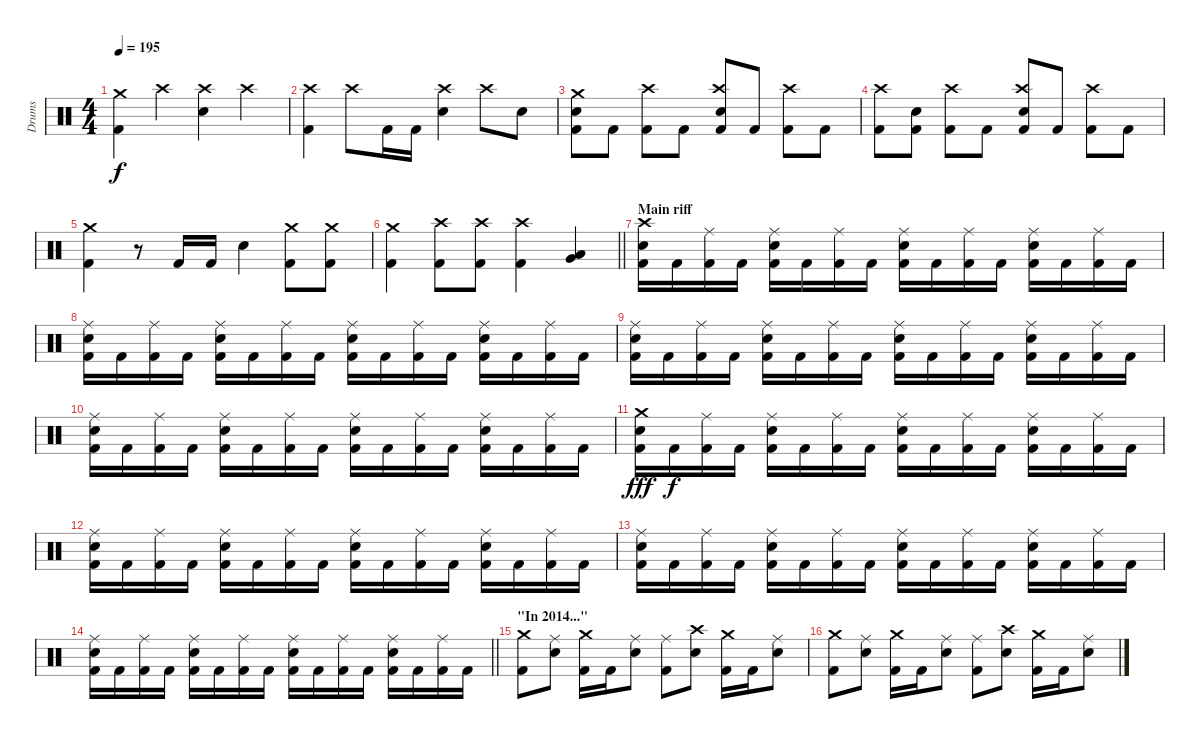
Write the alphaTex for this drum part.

\track ("Drums" "Drums") {instrument percussion}
\staff {score}
\articulation defaults
\ts (4 4)
\tempo 195
\clef neutral
\ks c
("Crash medium (hit)" "Kick (hit) 2").4{dy f} "Crash high (hit)".4 ("Crash high (hit)" "Snare (hit) 2").4 "Crash high (hit)".4 |
("Crash high (hit)" "Kick (hit) 2").4 "Crash high (hit)".8 "Kick (hit) 2".16 "Kick (hit) 2".16 ("Crash high (hit)" "Snare (hit) 2").4 "Crash high (hit)".8 "Snare (hit) 2".8 |
("Crash medium (hit)" "Snare (hit) 2" "Kick (hit) 2").8 "Kick (hit) 2".8 ("Crash high (hit)" "Kick (hit) 2").8 "Kick (hit) 2".8 ("Crash high (hit)" "Snare (hit) 2" "Kick (hit) 2").8 "Kick (hit) 2".8 ("Crash high (hit)" "Kick (hit) 2").8 "Kick (hit) 2".8 |
("Crash high (hit)" "Kick (hit) 2").8 ("Snare (hit) 2" "Kick (hit) 2").8 ("Crash high (hit)" "Kick (hit) 2").8 "Kick (hit) 2".8 ("Crash high (hit)" "Snare (hit) 2" "Kick (hit) 2").8 "Kick (hit) 2".8 ("Crash high (hit)" "Kick (hit) 2").8 "Kick (hit) 2".8 |
("Crash medium (hit)" "Kick (hit) 2").4 r.8 "Kick (hit) 2".16 "Kick (hit) 2".16 "Snare (hit) 2".4 ("Crash medium (hit)" "Kick (hit) 2").8 ("Crash medium (hit)" "Kick (hit) 2").8 |
\barLineRight lightlight
("Crash medium (hit)" "Kick (hit) 2").4 ("Crash high (hit)" "Kick (hit) 2").8 ("Crash high (hit)" "Kick (hit) 2").8 ("Crash high (hit)" "Kick (hit) 2").4 ("Very Low Tom (hit)" "Low Floor Tom (hit)").4 |
\section ("" "Main riff")
("Crash high (hit)" "Snare (hit) 2" "Kick (hit) 2").16 "Kick (hit) 2".16 ("Ride (middle)" "Kick (hit) 2").16 "Kick (hit) 2".16 ("Ride (middle)" "Snare (hit) 2" "Kick (hit) 2").16 "Kick (hit) 2".16 ("Ride (middle)" "Kick (hit) 2").16 "Kick (hit) 2".16 ("Ride (middle)" "Snare (hit) 2" "Kick (hit) 2").16 "Kick (hit) 2".16 ("Ride (middle)" "Kick (hit) 2").16 "Kick (hit) 2".16 ("Ride (middle)" "Snare (hit) 2" "Kick (hit) 2").16 "Kick (hit) 2".16 ("Ride (middle)" "Kick (hit) 2").16 "Kick (hit) 2".16 |
("Ride (middle)" "Snare (hit) 2" "Kick (hit) 2").16 "Kick (hit) 2".16 ("Ride (middle)" "Kick (hit) 2").16 "Kick (hit) 2".16 ("Ride (middle)" "Snare (hit) 2" "Kick (hit) 2").16 "Kick (hit) 2".16 ("Ride (middle)" "Kick (hit) 2").16 "Kick (hit) 2".16 ("Ride (middle)" "Snare (hit) 2" "Kick (hit) 2").16 "Kick (hit) 2".16 ("Ride (middle)" "Kick (hit) 2").16 "Kick (hit) 2".16 ("Ride (middle)" "Snare (hit) 2" "Kick (hit) 2").16 "Kick (hit) 2".16 ("Ride (middle)" "Kick (hit) 2").16 "Kick (hit) 2".16 |
("Ride (middle)" "Snare (hit) 2" "Kick (hit) 2").16 "Kick (hit) 2".16 ("Ride (middle)" "Kick (hit) 2").16 "Kick (hit) 2".16 ("Ride (middle)" "Snare (hit) 2" "Kick (hit) 2").16 "Kick (hit) 2".16 ("Ride (middle)" "Kick (hit) 2").16 "Kick (hit) 2".16 ("Ride (middle)" "Snare (hit) 2" "Kick (hit) 2").16 "Kick (hit) 2".16 ("Ride (middle)" "Kick (hit) 2").16 "Kick (hit) 2".16 ("Ride (middle)" "Snare (hit) 2" "Kick (hit) 2").16 "Kick (hit) 2".16 ("Ride (middle)" "Kick (hit) 2").16 "Kick (hit) 2".16 |
("Ride (middle)" "Snare (hit) 2" "Kick (hit) 2").16 "Kick (hit) 2".16 ("Ride (middle)" "Kick (hit) 2").16 "Kick (hit) 2".16 ("Ride (middle)" "Snare (hit) 2" "Kick (hit) 2").16 "Kick (hit) 2".16 ("Ride (middle)" "Kick (hit) 2").16 "Kick (hit) 2".16 ("Ride (middle)" "Snare (hit) 2" "Kick (hit) 2").16 "Kick (hit) 2".16 ("Ride (middle)" "Kick (hit) 2").16 "Kick (hit) 2".16 ("Ride (middle)" "Snare (hit) 2" "Kick (hit) 2").16 "Kick (hit) 2".16 ("Ride (middle)" "Kick (hit) 2").16 "Kick (hit) 2".16 |
("Crash medium (hit)" "Snare (hit) 2" "Kick (hit) 2").16{dy fff} "Kick (hit) 2".16{dy f} ("Ride (middle)" "Kick (hit) 2").16 "Kick (hit) 2".16 ("Ride (middle)" "Snare (hit) 2" "Kick (hit) 2").16 "Kick (hit) 2".16 ("Ride (middle)" "Kick (hit) 2").16 "Kick (hit) 2".16 ("Ride (middle)" "Snare (hit) 2" "Kick (hit) 2").16 "Kick (hit) 2".16 ("Ride (middle)" "Kick (hit) 2").16 "Kick (hit) 2".16 ("Ride (middle)" "Snare (hit) 2" "Kick (hit) 2").16 "Kick (hit) 2".16 ("Ride (middle)" "Kick (hit) 2").16 "Kick (hit) 2".16 |
("Ride (middle)" "Snare (hit) 2" "Kick (hit) 2").16 "Kick (hit) 2".16 ("Ride (middle)" "Kick (hit) 2").16 "Kick (hit) 2".16 ("Ride (middle)" "Snare (hit) 2" "Kick (hit) 2").16 "Kick (hit) 2".16 ("Ride (middle)" "Kick (hit) 2").16 "Kick (hit) 2".16 ("Ride (middle)" "Snare (hit) 2" "Kick (hit) 2").16 "Kick (hit) 2".16 ("Ride (middle)" "Kick (hit) 2").16 "Kick (hit) 2".16 ("Ride (middle)" "Snare (hit) 2" "Kick (hit) 2").16 "Kick (hit) 2".16 ("Ride (middle)" "Kick (hit) 2").16 "Kick (hit) 2".16 |
("Ride (middle)" "Snare (hit) 2" "Kick (hit) 2").16 "Kick (hit) 2".16 ("Ride (middle)" "Kick (hit) 2").16 "Kick (hit) 2".16 ("Ride (middle)" "Snare (hit) 2" "Kick (hit) 2").16 "Kick (hit) 2".16 ("Ride (middle)" "Kick (hit) 2").16 "Kick (hit) 2".16 ("Ride (middle)" "Snare (hit) 2" "Kick (hit) 2").16 "Kick (hit) 2".16 ("Ride (middle)" "Kick (hit) 2").16 "Kick (hit) 2".16 ("Ride (middle)" "Snare (hit) 2" "Kick (hit) 2").16 "Kick (hit) 2".16 ("Ride (middle)" "Kick (hit) 2").16 "Kick (hit) 2".16 |
\barLineRight lightlight
("Ride (middle)" "Snare (hit) 2" "Kick (hit) 2").16 "Kick (hit) 2".16 ("Ride (middle)" "Kick (hit) 2").16 "Kick (hit) 2".16 ("Ride (middle)" "Snare (hit) 2" "Kick (hit) 2").16 "Kick (hit) 2".16 ("Ride (middle)" "Kick (hit) 2").16 "Kick (hit) 2".16 ("Ride (middle)" "Snare (hit) 2" "Kick (hit) 2").16 "Kick (hit) 2".16 ("Ride (middle)" "Kick (hit) 2").16 "Kick (hit) 2".16 ("Ride (middle)" "Snare (hit) 2" "Kick (hit) 2").16 "Kick (hit) 2".16 ("Ride (middle)" "Kick (hit) 2").16 "Kick (hit) 2".16 |
\section ("" "\"In 2014...\"")
("Crash medium (hit)" "Kick (hit) 2").8 ("Ride (middle)" "Snare (hit) 2").8 ("Crash medium (hit)" "Kick (hit) 2").16 "Kick (hit) 2".16 ("Ride (middle)" "Snare (hit) 2").8 ("Ride (middle)" "Kick (hit) 2").8 ("Crash high (hit)" "Snare (hit) 2").8 ("Crash medium (hit)" "Kick (hit) 2").16 "Kick (hit) 2".16 ("Ride (middle)" "Snare (hit) 2").8 |
("Crash medium (hit)" "Kick (hit) 2").8 ("Ride (middle)" "Snare (hit) 2").8 ("Crash medium (hit)" "Kick (hit) 2").16 "Kick (hit) 2".16 ("Ride (middle)" "Snare (hit) 2").8 ("Ride (middle)" "Kick (hit) 2").8 ("Crash high (hit)" "Snare (hit) 2").8 ("Crash medium (hit)" "Kick (hit) 2").16 "Kick (hit) 2".16 ("Ride (middle)" "Snare (hit) 2").8
